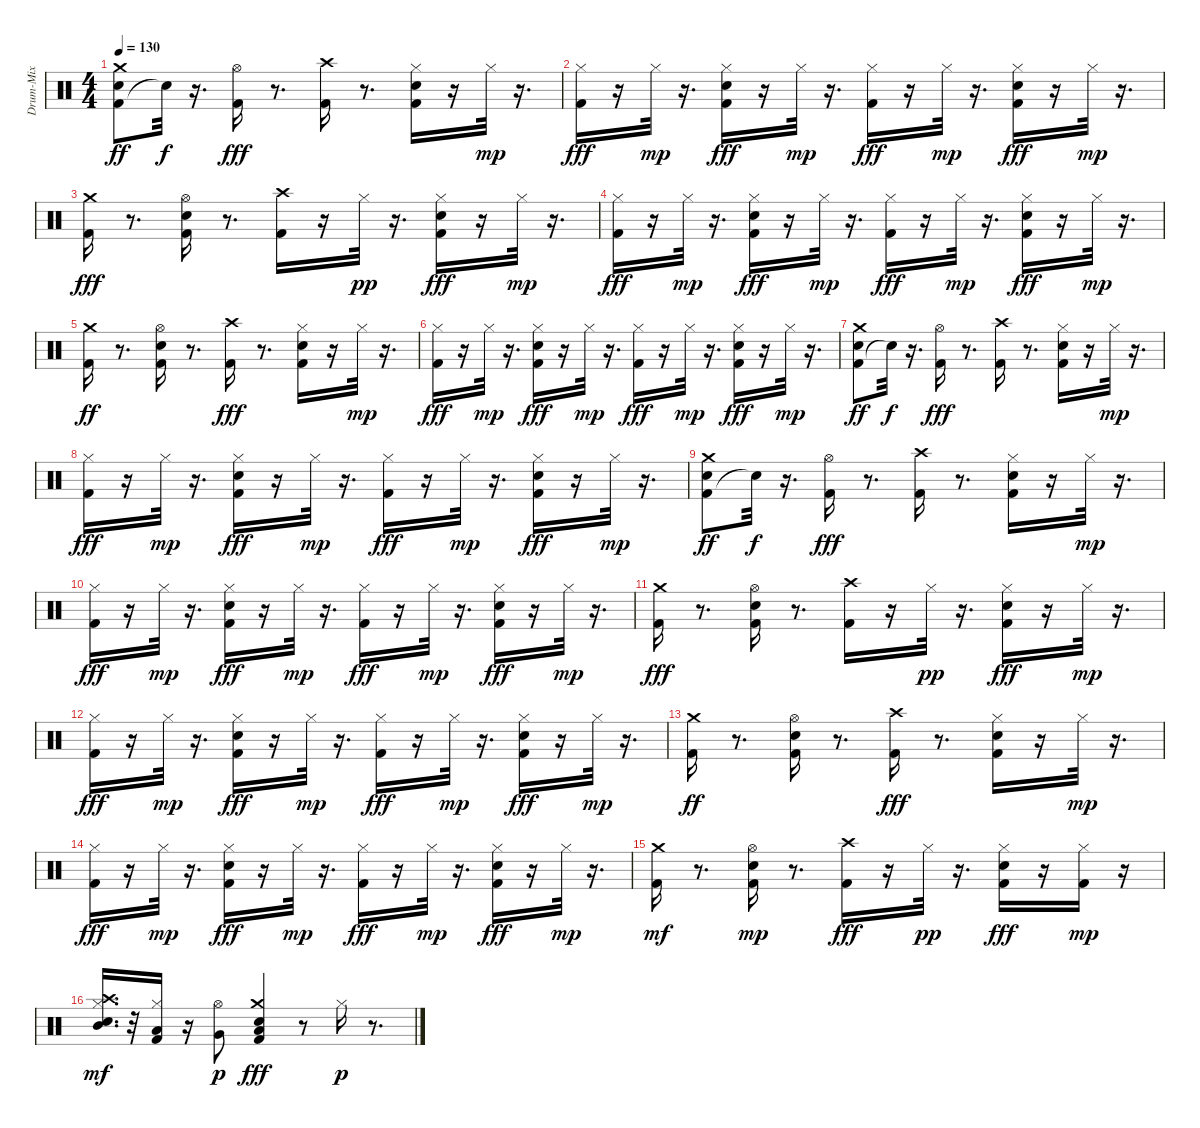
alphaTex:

\track ("Drum-Mix" "Drum-Mix") {instrument percussion}
\staff {score}
\articulation defaults
\ts (4 4)
\tempo 130
\clef neutral
\ks c
("Kick (hit) 2" "Snare (hit) 2" "Crash medium (hit)").8{dy ff} "Snare (hit)"{t}.32{dy f} r.16{d} ("Kick (hit) 2" "Hi-Hat (open)").16{dy fff} r.8{d} ("Kick (hit) 2" "Crash high (hit)").16 r.8{d} ("Kick (hit) 2" "Snare (hit) 2" "Hi-Hat (closed)").16 r.16 "Hi-Hat (closed)".32{dy mp} r.16{d} |
("Kick (hit) 2" "Hi-Hat (closed)").16{dy fff} r.16 "Hi-Hat (closed)".32{dy mp} r.16{d} ("Kick (hit) 2" "Snare (hit) 2" "Hi-Hat (closed)").16{dy fff} r.16 "Hi-Hat (closed)".32{dy mp} r.16{d} ("Kick (hit) 2" "Hi-Hat (closed)").16{dy fff} r.16 "Hi-Hat (closed)".32{dy mp} r.16{d} ("Kick (hit) 2" "Snare (hit) 2" "Hi-Hat (closed)").16{dy fff} r.16 "Hi-Hat (closed)".32{dy mp} r.16{d} |
("Kick (hit) 2" "Crash medium (hit)").16{dy fff} r.8{d} ("Kick (hit) 2" "Snare (hit) 2" "Hi-Hat (open)").16 r.8{d} ("Kick (hit) 2" "Crash high (hit)").16 r.16 "Hi-Hat (closed)".32{dy pp} r.16{d} ("Kick (hit) 2" "Snare (hit) 2" "Hi-Hat (closed)").16{dy fff} r.16 "Hi-Hat (closed)".32{dy mp} r.16{d} |
("Kick (hit) 2" "Hi-Hat (closed)").16{dy fff} r.16 "Hi-Hat (closed)".32{dy mp} r.16{d} ("Kick (hit) 2" "Snare (hit) 2" "Hi-Hat (closed)").16{dy fff} r.16 "Hi-Hat (closed)".32{dy mp} r.16{d} ("Kick (hit) 2" "Hi-Hat (closed)").16{dy fff} r.16 "Hi-Hat (closed)".32{dy mp} r.16{d} ("Kick (hit) 2" "Snare (hit) 2" "Hi-Hat (closed)").16{dy fff} r.16 "Hi-Hat (closed)".32{dy mp} r.16{d} |
("Kick (hit) 2" "Crash medium (hit)").16{dy ff} r.8{d} ("Kick (hit) 2" "Snare (hit) 2" "Hi-Hat (open)").16 r.8{d} ("Kick (hit) 2" "Crash high (hit)").16{dy fff} r.8{d} ("Kick (hit) 2" "Snare (hit) 2" "Hi-Hat (closed)").16 r.16 "Hi-Hat (closed)".32{dy mp} r.16{d} |
("Kick (hit) 2" "Hi-Hat (closed)").16{dy fff} r.16 "Hi-Hat (closed)".32{dy mp} r.16{d} ("Kick (hit) 2" "Snare (hit) 2" "Hi-Hat (closed)").16{dy fff} r.16 "Hi-Hat (closed)".32{dy mp} r.16{d} ("Kick (hit) 2" "Hi-Hat (closed)").16{dy fff} r.16 "Hi-Hat (closed)".32{dy mp} r.16{d} ("Kick (hit) 2" "Snare (hit) 2" "Hi-Hat (closed)").16{dy fff} r.16 "Hi-Hat (closed)".32{dy mp} r.16{d} |
("Kick (hit) 2" "Snare (hit) 2" "Crash medium (hit)").8{dy ff} "Snare (hit)"{t}.32{dy f} r.16{d} ("Kick (hit) 2" "Hi-Hat (open)").16{dy fff} r.8{d} ("Kick (hit) 2" "Crash high (hit)").16 r.8{d} ("Kick (hit) 2" "Snare (hit) 2" "Hi-Hat (closed)").16 r.16 "Hi-Hat (closed)".32{dy mp} r.16{d} |
("Kick (hit) 2" "Hi-Hat (closed)").16{dy fff} r.16 "Hi-Hat (closed)".32{dy mp} r.16{d} ("Kick (hit) 2" "Snare (hit) 2" "Hi-Hat (closed)").16{dy fff} r.16 "Hi-Hat (closed)".32{dy mp} r.16{d} ("Kick (hit) 2" "Hi-Hat (closed)").16{dy fff} r.16 "Hi-Hat (closed)".32{dy mp} r.16{d} ("Kick (hit) 2" "Snare (hit) 2" "Hi-Hat (closed)").16{dy fff} r.16 "Hi-Hat (closed)".32{dy mp} r.16{d} |
("Kick (hit) 2" "Snare (hit) 2" "Crash medium (hit)").8{dy ff} "Snare (hit)"{t}.32{dy f} r.16{d} ("Kick (hit) 2" "Hi-Hat (open)").16{dy fff} r.8{d} ("Kick (hit) 2" "Crash high (hit)").16 r.8{d} ("Kick (hit) 2" "Snare (hit) 2" "Hi-Hat (closed)").16 r.16 "Hi-Hat (closed)".32{dy mp} r.16{d} |
("Kick (hit) 2" "Hi-Hat (closed)").16{dy fff} r.16 "Hi-Hat (closed)".32{dy mp} r.16{d} ("Kick (hit) 2" "Snare (hit) 2" "Hi-Hat (closed)").16{dy fff} r.16 "Hi-Hat (closed)".32{dy mp} r.16{d} ("Kick (hit) 2" "Hi-Hat (closed)").16{dy fff} r.16 "Hi-Hat (closed)".32{dy mp} r.16{d} ("Kick (hit) 2" "Snare (hit) 2" "Hi-Hat (closed)").16{dy fff} r.16 "Hi-Hat (closed)".32{dy mp} r.16{d} |
("Kick (hit) 2" "Crash medium (hit)").16{dy fff} r.8{d} ("Kick (hit) 2" "Snare (hit) 2" "Hi-Hat (open)").16 r.8{d} ("Kick (hit) 2" "Crash high (hit)").16 r.16 "Hi-Hat (closed)".32{dy pp} r.16{d} ("Kick (hit) 2" "Snare (hit) 2" "Hi-Hat (closed)").16{dy fff} r.16 "Hi-Hat (closed)".32{dy mp} r.16{d} |
("Kick (hit) 2" "Hi-Hat (closed)").16{dy fff} r.16 "Hi-Hat (closed)".32{dy mp} r.16{d} ("Kick (hit) 2" "Snare (hit) 2" "Hi-Hat (closed)").16{dy fff} r.16 "Hi-Hat (closed)".32{dy mp} r.16{d} ("Kick (hit) 2" "Hi-Hat (closed)").16{dy fff} r.16 "Hi-Hat (closed)".32{dy mp} r.16{d} ("Kick (hit) 2" "Snare (hit) 2" "Hi-Hat (closed)").16{dy fff} r.16 "Hi-Hat (closed)".32{dy mp} r.16{d} |
("Kick (hit) 2" "Crash medium (hit)").16{dy ff} r.8{d} ("Kick (hit) 2" "Snare (hit) 2" "Hi-Hat (open)").16 r.8{d} ("Kick (hit) 2" "Crash high (hit)").16{dy fff} r.8{d} ("Kick (hit) 2" "Snare (hit) 2" "Hi-Hat (closed)").16 r.16 "Hi-Hat (closed)".32{dy mp} r.16{d} |
("Kick (hit) 2" "Hi-Hat (closed)").16{dy fff} r.16 "Hi-Hat (closed)".32{dy mp} r.16{d} ("Kick (hit) 2" "Snare (hit) 2" "Hi-Hat (closed)").16{dy fff} r.16 "Hi-Hat (closed)".32{dy mp} r.16{d} ("Kick (hit) 2" "Hi-Hat (closed)").16{dy fff} r.16 "Hi-Hat (closed)".32{dy mp} r.16{d} ("Kick (hit) 2" "Snare (hit) 2" "Hi-Hat (closed)").16{dy fff} r.16 "Hi-Hat (closed)".32{dy mp} r.16{d} |
("Kick (hit) 2" "Crash medium (hit)").16{dy mf} r.8{d} ("Kick (hit) 2" "Snare (hit) 2" "Hi-Hat (open)").16{dy mp} r.8{d} ("Kick (hit) 2" "Crash high (hit)").16{dy fff} r.16 "Hi-Hat (closed)".32{dy pp} r.16{d} ("Kick (hit) 2" "Snare (hit) 2" "Hi-Hat (closed)").16{dy fff} r.16 ("Kick (hit) 2" "Hi-Hat (closed)").16{dy mp} r.16 |
("Snare (hit) 2" "Hi-Hat (closed)" "Mid Tom (hit)" "Crash high (hit)").16{d dy mf} r.32 ("Kick (hit) 2" "Hi-Hat (closed)" "Low Tom (hit)").16 r.16 ("Very Low Tom (hit)" "Hi-Hat (open)").8{dy p} ("Kick (hit) 2" "Snare (hit) 2" "Low Floor Tom (hit)" "Crash medium (hit)").4{dy fff} r.8 "Hi-Hat (closed)".16{dy p} r.8{d}
